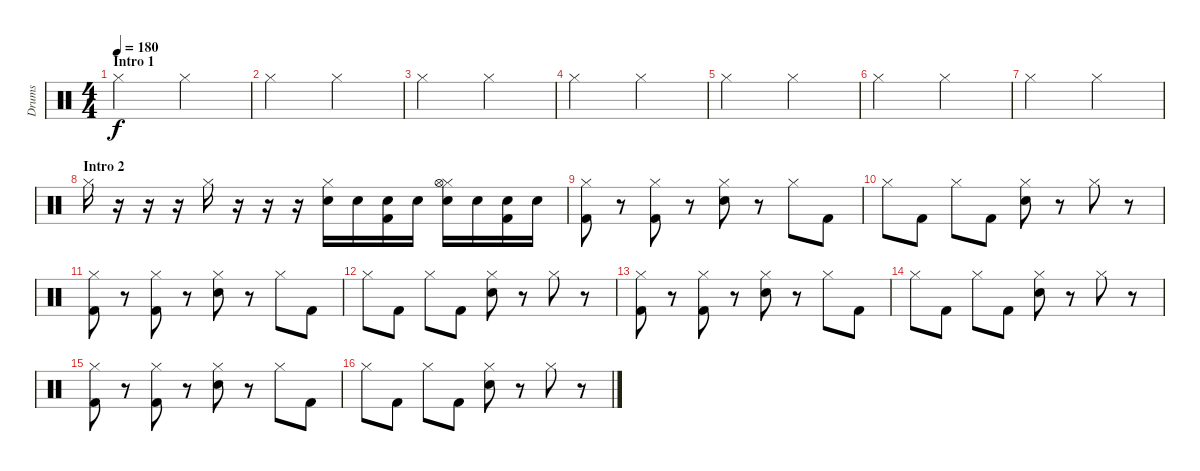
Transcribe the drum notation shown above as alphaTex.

\track ("Drums" "Drums") {instrument percussion}
\staff {score}
\articulation defaults
\ts (4 4)
\section ("" "Intro 1")
\tempo 180
\clef neutral
\ks c "Hi-Hat (closed)".2{dy f} "Hi-Hat (closed)".2
|
"Hi-Hat (closed)".2 "Hi-Hat (closed)".2 |
"Hi-Hat (closed)".2 "Hi-Hat (closed)".2 |
"Hi-Hat (closed)".2 "Hi-Hat (closed)".2 |
"Hi-Hat (closed)".2 "Hi-Hat (closed)".2 |
"Hi-Hat (closed)".2 "Hi-Hat (closed)".2 |
"Hi-Hat (closed)".2 "Hi-Hat (closed)".2 |
\section ("" "Intro 2")
"Hi-Hat (closed)".16 r.16 r.16 r.16 "Hi-Hat (closed)".16 r.16 r.16 r.16 ("Hi-Hat (closed)" "Snare (hit) 2").16 "Snare (hit) 2".16 ("Snare (hit) 2" "Kick (hit) 2").16 "Snare (hit) 2".16 ("Hi-Hat (closed)" "Snare (hit) 2" "Hi-Hat (open)").16 "Snare (hit) 2".16 ("Snare (hit) 2" "Kick (hit) 2").16 "Snare (hit) 2".16 |
("Hi-Hat (closed)" "Kick (hit) 2").8 r.8 ("Hi-Hat (closed)" "Kick (hit) 2").8 r.8 ("Hi-Hat (closed)" "Snare (hit) 2").8 r.8 "Hi-Hat (closed)".8 "Kick (hit) 2".8 |
"Hi-Hat (closed)".8 "Kick (hit) 2".8 "Hi-Hat (closed)".8 "Kick (hit) 2".8 ("Hi-Hat (closed)" "Snare (hit) 2").8 r.8 "Hi-Hat (closed)".8 r.8 |
("Hi-Hat (closed)" "Kick (hit) 2").8 r.8 ("Hi-Hat (closed)" "Kick (hit) 2").8 r.8 ("Hi-Hat (closed)" "Snare (hit) 2").8 r.8 "Hi-Hat (closed)".8 "Kick (hit) 2".8 |
"Hi-Hat (closed)".8 "Kick (hit) 2".8 "Hi-Hat (closed)".8 "Kick (hit) 2".8 ("Hi-Hat (closed)" "Snare (hit) 2").8 r.8 "Hi-Hat (closed)".8 r.8 |
("Hi-Hat (closed)" "Kick (hit) 2").8 r.8 ("Hi-Hat (closed)" "Kick (hit) 2").8 r.8 ("Hi-Hat (closed)" "Snare (hit) 2").8 r.8 "Hi-Hat (closed)".8 "Kick (hit) 2".8 |
"Hi-Hat (closed)".8 "Kick (hit) 2".8 "Hi-Hat (closed)".8 "Kick (hit) 2".8 ("Hi-Hat (closed)" "Snare (hit) 2").8 r.8 "Hi-Hat (closed)".8 r.8 |
("Hi-Hat (closed)" "Kick (hit) 2").8 r.8 ("Hi-Hat (closed)" "Kick (hit) 2").8 r.8 ("Hi-Hat (closed)" "Snare (hit) 2").8 r.8 "Hi-Hat (closed)".8 "Kick (hit) 2".8 |
"Hi-Hat (closed)".8 "Kick (hit) 2".8 "Hi-Hat (closed)".8 "Kick (hit) 2".8 ("Hi-Hat (closed)" "Snare (hit) 2").8 r.8 "Hi-Hat (closed)".8 r.8
